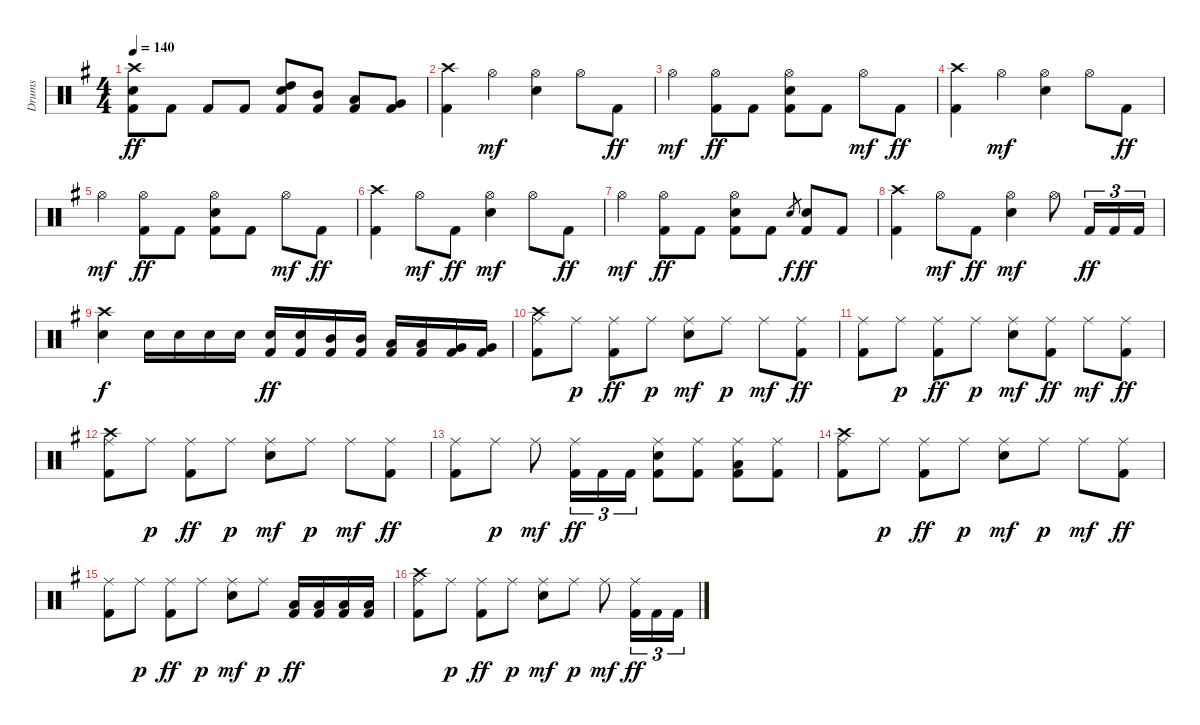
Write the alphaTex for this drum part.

\track ("Drums" "Drums") {instrument percussion}
\staff {score}
\articulation defaults
\ts (4 4)
\tempo 140
\clef neutral
\ks g
("Crash high (hit)" "Snare (hit) 2" "Kick (hit) 2").8{dy ff} "Kick (hit) 2".8 "Kick (hit) 2".8 "Kick (hit) 2".8 ("High Tom (hit)" "Snare (hit) 2" "Kick (hit) 2").8 ("Mid Tom (hit)" "Kick (hit) 2").8 ("Low Tom (hit)" "Kick (hit) 2").8 ("Very Low Tom (hit)" "Kick (hit) 2").8 |
("Crash high (hit)" "Kick (hit) 2").4 "Hi-Hat (open)".4{dy mf} ("Hi-Hat (open)" "Snare (hit) 2").4 "Hi-Hat (open)".8 "Kick (hit) 2".8{dy ff} |
"Hi-Hat (open)".4{dy mf} ("Hi-Hat (open)" "Kick (hit) 2").8{dy ff} "Kick (hit) 2".8 ("Hi-Hat (open)" "Snare (hit) 2" "Kick (hit) 2").8 "Kick (hit) 2".8 "Hi-Hat (open)".8{dy mf} "Kick (hit) 2".8{dy ff} |
("Crash high (hit)" "Kick (hit) 2").4 "Hi-Hat (open)".4{dy mf} ("Hi-Hat (open)" "Snare (hit) 2").4 "Hi-Hat (open)".8 "Kick (hit) 2".8{dy ff} |
"Hi-Hat (open)".4{dy mf} ("Hi-Hat (open)" "Kick (hit) 2").8{dy ff} "Kick (hit) 2".8 ("Hi-Hat (open)" "Snare (hit) 2" "Kick (hit) 2").8 "Kick (hit) 2".8 "Hi-Hat (open)".8{dy mf} "Kick (hit) 2".8{dy ff} |
("Crash high (hit)" "Kick (hit) 2").4 "Hi-Hat (open)".8{dy mf} "Kick (hit) 2".8{dy ff} ("Hi-Hat (open)" "Snare (hit) 2").4{dy mf} "Hi-Hat (open)".8 "Kick (hit) 2".8{dy ff} |
"Hi-Hat (open)".4{dy mf} ("Hi-Hat (open)" "Kick (hit) 2").8{dy ff} "Kick (hit) 2".8 ("Hi-Hat (open)" "Snare (hit) 2" "Kick (hit) 2").8 "Kick (hit) 2".8 "Snare (hit) 2".8{gr dy f} ("Snare (hit) 2" "Kick (hit) 2").8{dy ff} "Kick (hit) 2".8 |
("Crash high (hit)" "Kick (hit) 2").4 "Hi-Hat (open)".8{dy mf} "Kick (hit) 2".8{dy ff} ("Hi-Hat (open)" "Snare (hit) 2").4{dy mf} "Hi-Hat (open)".8 "Kick (hit) 2".16{tu (3 2) dy ff} "Kick (hit) 2".16{tu (3 2)} "Kick (hit) 2".16{tu (3 2)} |
("Crash high (hit)" "Snare (hit) 2").4{dy f} "Snare (hit) 2".16 "Snare (hit) 2".16 "Snare (hit) 2".16 "Snare (hit) 2".16 ("Snare (hit) 2" "Kick (hit) 2").16{dy ff} ("Snare (hit) 2" "Kick (hit) 2").16 ("Mid Tom (hit)" "Kick (hit) 2").16 ("Mid Tom (hit)" "Kick (hit) 2").16 ("Low Tom (hit)" "Kick (hit) 2").16 ("Low Tom (hit)" "Kick (hit) 2").16 ("Very Low Tom (hit)" "Kick (hit) 2").16 ("Very Low Tom (hit)" "Kick (hit) 2").16 |
("Crash high (hit)" "Ride (middle)" "Kick (hit) 2").8 "Ride (middle)".8{dy p} ("Ride (middle)" "Kick (hit) 2").8{dy ff} "Ride (middle)".8{dy p} ("Ride (middle)" "Snare (hit) 2").8{dy mf} "Ride (middle)".8{dy p} "Ride (middle)".8{dy mf} ("Ride (middle)" "Kick (hit) 2").8{dy ff} |
("Ride (middle)" "Kick (hit) 2").8 "Ride (middle)".8{dy p} ("Ride (middle)" "Kick (hit) 2").8{dy ff} "Ride (middle)".8{dy p} ("Ride (middle)" "Snare (hit) 2").8{dy mf} ("Ride (middle)" "Kick (hit) 2").8{dy ff} "Ride (middle)".8{dy mf} ("Ride (middle)" "Kick (hit) 2").8{dy ff} |
("Crash high (hit)" "Ride (middle)" "Kick (hit) 2").8 "Ride (middle)".8{dy p} ("Ride (middle)" "Kick (hit) 2").8{dy ff} "Ride (middle)".8{dy p} ("Ride (middle)" "Snare (hit) 2").8{dy mf} "Ride (middle)".8{dy p} "Ride (middle)".8{dy mf} ("Ride (middle)" "Kick (hit) 2").8{dy ff} |
("Ride (middle)" "Kick (hit) 2").8 "Ride (middle)".8{dy p} "Ride (middle)".8{dy mf} ("Ride (middle)" "Kick (hit) 2").16{tu (3 2) dy ff} "Kick (hit) 2".16{tu (3 2)} "Kick (hit) 2".16{tu (3 2)} ("Ride (middle)" "Snare (hit) 2" "Kick (hit) 2").8 ("Ride (middle)" "Kick (hit) 2").8 ("Ride (middle)" "Low Tom (hit)" "Kick (hit) 2").8 ("Ride (middle)" "Kick (hit) 2").8 |
("Crash high (hit)" "Ride (middle)" "Kick (hit) 2").8 "Ride (middle)".8{dy p} ("Ride (middle)" "Kick (hit) 2").8{dy ff} "Ride (middle)".8{dy p} ("Ride (middle)" "Snare (hit) 2").8{dy mf} "Ride (middle)".8{dy p} "Ride (middle)".8{dy mf} ("Ride (middle)" "Kick (hit) 2").8{dy ff} |
("Ride (middle)" "Kick (hit) 2").8 "Ride (middle)".8{dy p} ("Ride (middle)" "Kick (hit) 2").8{dy ff} "Ride (middle)".8{dy p} ("Ride (middle)" "Snare (hit) 2").8{dy mf} "Ride (middle)".8{dy p} ("Low Tom (hit)" "Kick (hit) 2").16{dy ff} ("Low Tom (hit)" "Kick (hit) 2").16 ("Low Tom (hit)" "Kick (hit) 2").16 ("Low Tom (hit)" "Kick (hit) 2").16 |
("Crash high (hit)" "Ride (middle)" "Kick (hit) 2").8 "Ride (middle)".8{dy p} ("Ride (middle)" "Kick (hit) 2").8{dy ff} "Ride (middle)".8{dy p} ("Ride (middle)" "Snare (hit) 2").8{dy mf} "Ride (middle)".8{dy p} "Ride (middle)".8{dy mf} ("Ride (middle)" "Kick (hit) 2").16{tu (3 2) dy ff} "Kick (hit) 2".16{tu (3 2)} "Kick (hit) 2".16{tu (3 2)}
